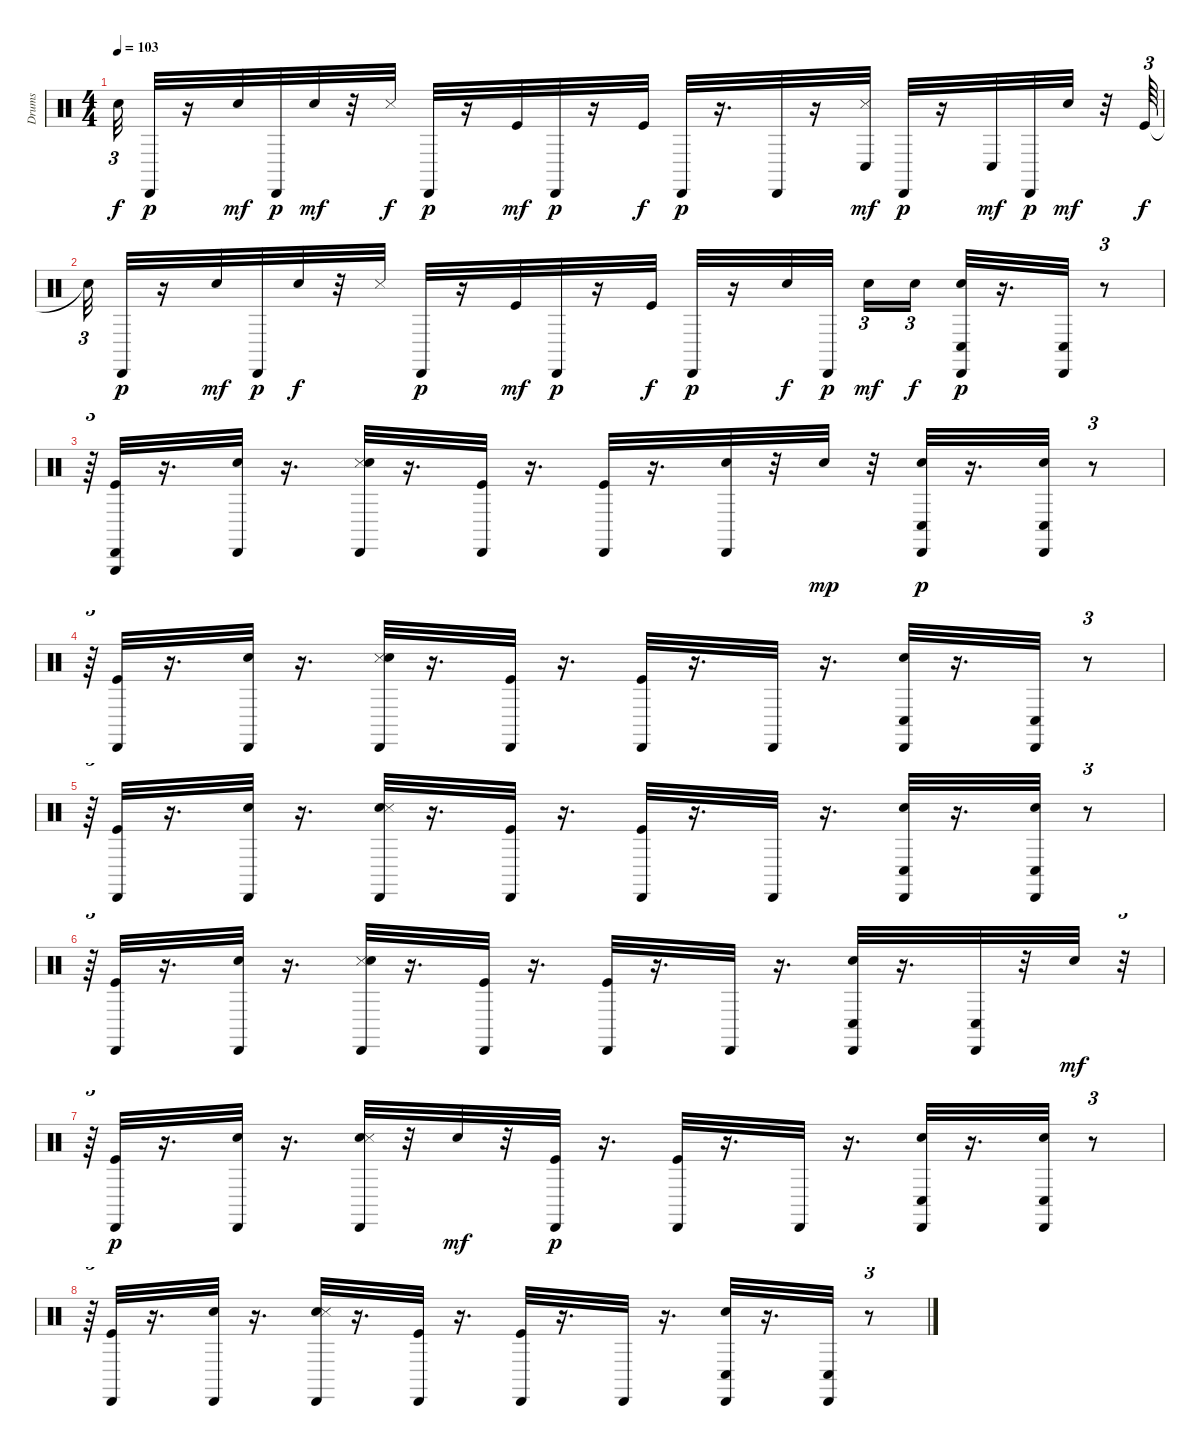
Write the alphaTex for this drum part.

\track ("Drums" "Drums") {instrument percussion}
\staff {score}
\articulation defaults
\ts (4 4)
\tempo 103
\clef neutral
\ks c "Snare (hit)"{t}.32{tu (3 2) dy f} "Cabasa (hit)".32{dy p}
r.16 "Snare (hit) 2".32{dy mf} "Cabasa (hit)".32{dy p} "Snare (hit) 2".32{dy mf} r.32 "Snare (side stick) 3".32{dy f} "Cabasa (hit)".32{dy p} r.16 "Kick (hit)".32{dy mf} "Cabasa (hit)".32{dy p} r.16 "Kick (hit)".32{dy f} "Cabasa (hit)".32{dy p} r.16{d} "Cabasa (hit)".32 r.16 ("Conga low (hit)" "Snare (side stick) 3").32{dy mf} "Cabasa (hit)".32{dy p} r.16 "Conga low (hit)".32{dy mf} "Cabasa (hit)".32{dy p} "Snare (hit) 2".32{dy mf} r.32 "Kick (hit)".64{tu (3 2) dy f} |
"Snare (hit)"{t}.32{tu (3 2)} "Cabasa (hit)".32{dy p} r.16 "Snare (hit) 2".32{dy mf} "Cabasa (hit)".32{dy p} "Snare (hit) 2".32{dy f} r.32 "Snare (side stick) 3".32 "Cabasa (hit)".32{dy p} r.16 "Kick (hit)".32{dy mf} "Cabasa (hit)".32{dy p} r.16 "Kick (hit)".32{dy f} "Cabasa (hit)".32{dy p} r.16 "Snare (hit) 2".32{dy f} "Cabasa (hit)".32{dy p} "Snare (hit) 2".16{tu (3 2) dy mf} "Snare (hit) 2".16{tu (3 2) dy f} ("Conga low (hit)" "Snare (hit) 2" "Cabasa (hit)").32{dy p} r.16{d} ("Conga low (hit)" "Cabasa (hit)").32 r.8{tu (3 2)} |
r.64{tu (3 2)} ("Triangle (hit)" "Kick (hit)" "Cabasa (hit)").32 r.16{d} ("Snare (hit) 2" "Cabasa (hit)").32 r.16{d} ("Snare (side stick) 3" "Snare (hit) 2" "Cabasa (hit)").32 r.16{d} ("Kick (hit)" "Cabasa (hit)").32 r.16{d} ("Kick (hit)" "Cabasa (hit)").32 r.16{d} ("Snare (hit) 2" "Cabasa (hit)").32 r.32 "Snare (hit) 2".32{dy mp} r.32 ("Conga low (hit)" "Hand Clap (hit)" "Cabasa (hit)").32{dy p} r.16{d} ("Conga low (hit)" "Snare (hit) 2" "Cabasa (hit)").32 r.8{tu (3 2)} |
r.64{tu (3 2)} ("Kick (hit)" "Cabasa (hit)").32 r.16{d} ("Snare (hit) 2" "Cabasa (hit)").32 r.16{d} ("Snare (side stick) 3" "Snare (hit) 2" "Cabasa (hit)").32 r.16{d} ("Kick (hit)" "Cabasa (hit)").32 r.16{d} ("Kick (hit)" "Cabasa (hit)").32 r.16{d} "Cabasa (hit)".32 r.16{d} ("Hand Clap (hit)" "Conga low (hit)" "Cabasa (hit)").32 r.16{d} ("Conga low (hit)" "Cabasa (hit)").32 r.8{tu (3 2)} |
r.64{tu (3 2)} ("Kick (hit)" "Cabasa (hit)").32 r.16{d} ("Snare (hit) 2" "Cabasa (hit)").32 r.16{d} ("Snare (hit) 2" "Snare (side stick) 3" "Cabasa (hit)").32 r.16{d} ("Kick (hit)" "Cabasa (hit)").32 r.16{d} ("Kick (hit)" "Cabasa (hit)").32 r.16{d} "Cabasa (hit)".32 r.16{d} ("Conga low (hit)" "Hand Clap (hit)" "Cabasa (hit)").32 r.16{d} ("Snare (hit) 2" "Conga low (hit)" "Cabasa (hit)").32 r.8{tu (3 2)} |
r.64{tu (3 2)} ("Kick (hit)" "Cabasa (hit)").32 r.16{d} ("Snare (hit) 2" "Cabasa (hit)").32 r.16{d} ("Snare (side stick) 3" "Snare (hit) 2" "Cabasa (hit)").32 r.16{d} ("Kick (hit)" "Cabasa (hit)").32 r.16{d} ("Kick (hit)" "Cabasa (hit)").32 r.16{d} "Cabasa (hit)".32 r.16{d} ("Hand Clap (hit)" "Conga low (hit)" "Cabasa (hit)").32 r.16{d} ("Conga low (hit)" "Cabasa (hit)").32 r.32 "Snare (hit) 2".32{dy mf} r.32{tu (3 2)} |
r.64{tu (3 2)} ("Kick (hit)" "Cabasa (hit)").32{dy p} r.16{d} ("Snare (hit) 2" "Cabasa (hit)").32 r.16{d} ("Snare (hit) 2" "Snare (side stick) 3" "Cabasa (hit)").32 r.32 "Snare (hit) 2".32{dy mf} r.32 ("Kick (hit)" "Cabasa (hit)").32{dy p} r.16{d} ("Kick (hit)" "Cabasa (hit)").32 r.16{d} "Cabasa (hit)".32 r.16{d} ("Hand Clap (hit)" "Conga low (hit)" "Cabasa (hit)").32 r.16{d} ("Snare (hit) 2" "Conga low (hit)" "Cabasa (hit)").32 r.8{tu (3 2)} |
r.64{tu (3 2)} ("Kick (hit)" "Cabasa (hit)").32 r.16{d} ("Snare (hit) 2" "Cabasa (hit)").32 r.16{d} ("Snare (hit) 2" "Snare (side stick) 3" "Cabasa (hit)").32 r.16{d} ("Kick (hit)" "Cabasa (hit)").32 r.16{d} ("Kick (hit)" "Cabasa (hit)").32 r.16{d} "Cabasa (hit)".32 r.16{d} ("Conga low (hit)" "Hand Clap (hit)" "Cabasa (hit)").32 r.16{d} ("Conga low (hit)" "Cabasa (hit)").32 r.8{tu (3 2)}
